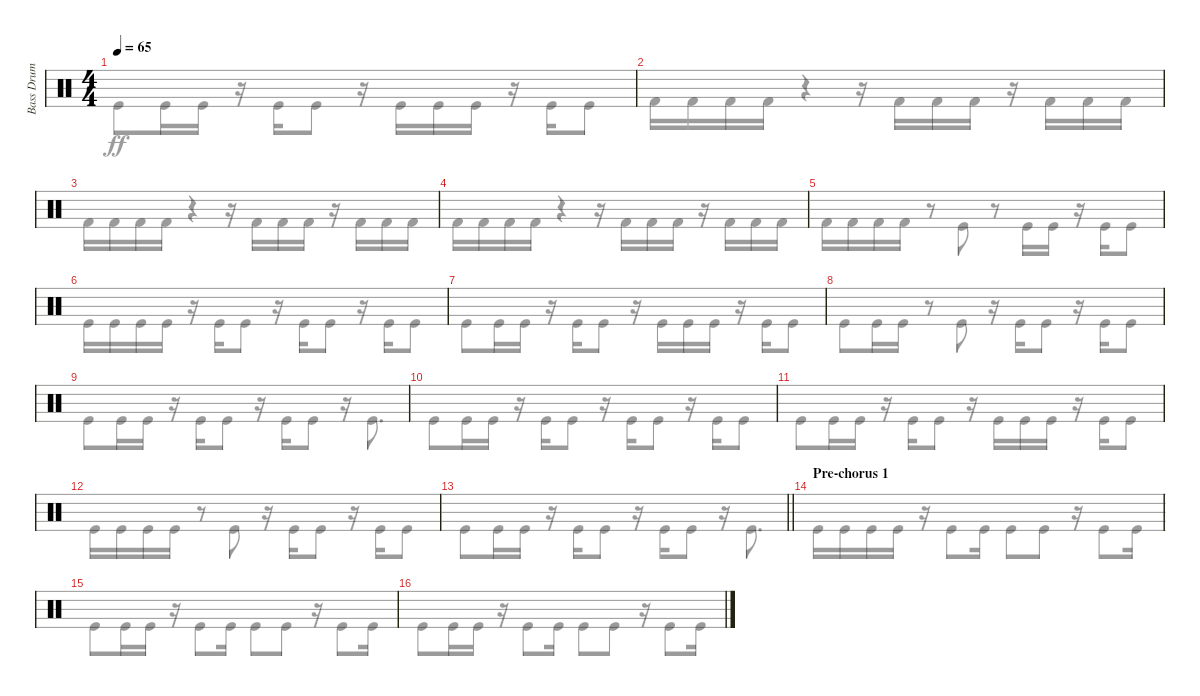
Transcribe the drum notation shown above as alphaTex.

\track ("Bass Drum" "Bass Drum") {instrument percussion}
\staff {score}
\articulation defaults
\voice
\ts (4 4)
\tempo 65
\clef neutral
\ks c
|
|
|
|
|
|
|
|
|
|
|
|
\barLineRight lightlight
|
\section ("" "Pre-chorus 1")
|
|
\voice
\clef neutral
\ks c "Kick (hit)".8{dy ff} "Kick (hit)".16 "Kick (hit)".16
r.16 "Kick (hit)".16 "Kick (hit)".8 r.16 "Kick (hit)".16 "Kick (hit)".16 "Kick (hit)".16 r.16 "Kick (hit)".16 "Kick (hit)".8 |
"Kick (hit) 2".16 "Kick (hit) 2".16 "Kick (hit) 2".16 "Kick (hit) 2".16 r.4 r.16 "Kick (hit) 2".16 "Kick (hit) 2".16 "Kick (hit) 2".16 r.16 "Kick (hit) 2".16 "Kick (hit) 2".16 "Kick (hit) 2".16 |
"Kick (hit) 2".16 "Kick (hit) 2".16 "Kick (hit) 2".16 "Kick (hit) 2".16 r.4 r.16 "Kick (hit) 2".16 "Kick (hit) 2".16 "Kick (hit) 2".16 r.16 "Kick (hit) 2".16 "Kick (hit) 2".16 "Kick (hit) 2".16 |
"Kick (hit) 2".16 "Kick (hit) 2".16 "Kick (hit) 2".16 "Kick (hit) 2".16 r.4 r.16 "Kick (hit) 2".16 "Kick (hit) 2".16 "Kick (hit) 2".16 r.16 "Kick (hit) 2".16 "Kick (hit) 2".16 "Kick (hit) 2".16 |
"Kick (hit) 2".16 "Kick (hit) 2".16 "Kick (hit) 2".16 "Kick (hit) 2".16 r.8 "Kick (hit)".8 r.8 "Kick (hit)".16 "Kick (hit)".16 r.16 "Kick (hit)".16 "Kick (hit)".8 |
"Kick (hit)".16 "Kick (hit)".16 "Kick (hit)".16 "Kick (hit)".16 r.16 "Kick (hit)".16 "Kick (hit)".8 r.16 "Kick (hit)".16 "Kick (hit)".8 r.16 "Kick (hit)".16 "Kick (hit)".8 |
"Kick (hit)".8 "Kick (hit)".16 "Kick (hit)".16 r.16 "Kick (hit)".16 "Kick (hit)".8 r.16 "Kick (hit)".16 "Kick (hit)".16 "Kick (hit)".16 r.16 "Kick (hit)".16 "Kick (hit)".8 |
"Kick (hit)".8 "Kick (hit)".16 "Kick (hit)".16 r.8 "Kick (hit)".8 r.16 "Kick (hit)".16 "Kick (hit)".8 r.16 "Kick (hit)".16 "Kick (hit)".8 |
"Kick (hit)".8 "Kick (hit)".16 "Kick (hit)".16 r.16 "Kick (hit)".16 "Kick (hit)".8 r.16 "Kick (hit)".16 "Kick (hit)".8 r.16 "Kick (hit)".8{d} |
"Kick (hit)".8 "Kick (hit)".16 "Kick (hit)".16 r.16 "Kick (hit)".16 "Kick (hit)".8 r.16 "Kick (hit)".16 "Kick (hit)".8 r.16 "Kick (hit)".16 "Kick (hit)".8 |
"Kick (hit)".8 "Kick (hit)".16 "Kick (hit)".16 r.16 "Kick (hit)".16 "Kick (hit)".8 r.16 "Kick (hit)".16 "Kick (hit)".16 "Kick (hit)".16 r.16 "Kick (hit)".16 "Kick (hit)".8 |
"Kick (hit)".16 "Kick (hit)".16 "Kick (hit)".16 "Kick (hit)".16 r.8 "Kick (hit)".8 r.16 "Kick (hit)".16 "Kick (hit)".8 r.16 "Kick (hit)".16 "Kick (hit)".8 |
\barLineRight lightlight "Kick (hit)".8 "Kick (hit)".16 "Kick (hit)".16
r.16 "Kick (hit)".16 "Kick (hit)".8 r.16 "Kick (hit)".16 "Kick (hit)".8 r.16 "Kick (hit)".8{d} |
"Kick (hit)".16 "Kick (hit)".16 "Kick (hit)".16 "Kick (hit)".16 r.16 "Kick (hit)".8 "Kick (hit)".16 "Kick (hit)".8 "Kick (hit)".8 r.16 "Kick (hit)".8 "Kick (hit)".16 |
"Kick (hit)".8 "Kick (hit)".16 "Kick (hit)".16 r.16 "Kick (hit)".8 "Kick (hit)".16 "Kick (hit)".8 "Kick (hit)".8 r.16 "Kick (hit)".8 "Kick (hit)".16 |
"Kick (hit)".8 "Kick (hit)".16 "Kick (hit)".16 r.16 "Kick (hit)".8 "Kick (hit)".16 "Kick (hit)".8 "Kick (hit)".8 r.16 "Kick (hit)".8 "Kick (hit)".16
